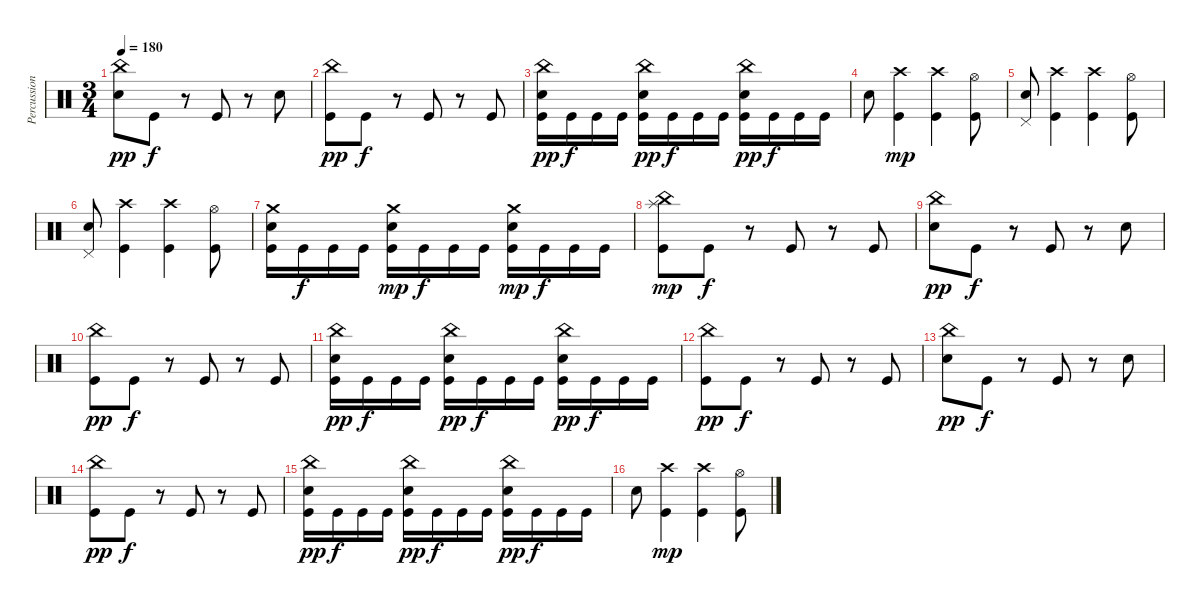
\track ("Percussion" "Percussion") {instrument percussion}
\staff {score}
\articulation defaults
\ts (3 4)
\tempo 180
\clef neutral
\ks c
("China (hit)" "Electric Snare (hit)").8{dy pp} "Kick (hit)".8{dy f} r.8 "Kick (hit)".8 r.8 "Electric Snare (hit)".8 |
("China (hit)" "Kick (hit)").8{dy pp} "Kick (hit)".8{dy f} r.8 "Kick (hit)".8 r.8 "Kick (hit)".8 |
("China (hit)" "Electric Snare (hit)" "Kick (hit)").16{dy pp} "Kick (hit)".16{dy f} "Kick (hit)".16 "Kick (hit)".16 ("China (hit)" "Electric Snare (hit)" "Kick (hit)").16{dy pp} "Kick (hit)".16{dy f} "Kick (hit)".16 "Kick (hit)".16 ("China (hit)" "Electric Snare (hit)" "Kick (hit)").16{dy pp} "Kick (hit)".16{dy f} "Kick (hit)".16 "Kick (hit)".16 |
"Electric Snare (hit)".8 ("Crash high (hit)" "Kick (hit)").4{dy mp} ("Crash high (hit)" "Kick (hit)").4 ("Hi-Hat (open)" "Kick (hit)").8 |
("Pedal Hi-Hat (hit)" "Electric Snare (hit)").8 ("Crash high (hit)" "Kick (hit)").4 ("Crash high (hit)" "Kick (hit)").4 ("Hi-Hat (open)" "Kick (hit)").8 |
("Pedal Hi-Hat (hit)" "Electric Snare (hit)").8 ("Crash high (hit)" "Kick (hit)").4 ("Crash high (hit)" "Kick (hit)").4 ("Hi-Hat (open)" "Kick (hit)").8 |
("Crash medium (hit)" "Electric Snare (hit)" "Kick (hit)").16 "Kick (hit)".16{dy f} "Kick (hit)".16 "Kick (hit)".16 ("Crash medium (hit)" "Electric Snare (hit)" "Kick (hit)").16{dy mp} "Kick (hit)".16{dy f} "Kick (hit)".16 "Kick (hit)".16 ("Crash medium (hit)" "Electric Snare (hit)" "Kick (hit)").16{dy mp} "Kick (hit)".16{dy f} "Kick (hit)".16 "Kick (hit)".16 |
("China (hit)" "Splash (hit)" "Kick (hit)").8{dy mp} "Kick (hit)".8{dy f} r.8 "Kick (hit)".8 r.8 "Kick (hit)".8 |
("China (hit)" "Electric Snare (hit)").8{dy pp} "Kick (hit)".8{dy f} r.8 "Kick (hit)".8 r.8 "Electric Snare (hit)".8 |
("China (hit)" "Kick (hit)").8{dy pp} "Kick (hit)".8{dy f} r.8 "Kick (hit)".8 r.8 "Kick (hit)".8 |
("China (hit)" "Electric Snare (hit)" "Kick (hit)").16{dy pp} "Kick (hit)".16{dy f} "Kick (hit)".16 "Kick (hit)".16 ("China (hit)" "Electric Snare (hit)" "Kick (hit)").16{dy pp} "Kick (hit)".16{dy f} "Kick (hit)".16 "Kick (hit)".16 ("China (hit)" "Electric Snare (hit)" "Kick (hit)").16{dy pp} "Kick (hit)".16{dy f} "Kick (hit)".16 "Kick (hit)".16 |
("China (hit)" "Kick (hit)").8{dy pp} "Kick (hit)".8{dy f} r.8 "Kick (hit)".8 r.8 "Kick (hit)".8 |
("China (hit)" "Electric Snare (hit)").8{dy pp} "Kick (hit)".8{dy f} r.8 "Kick (hit)".8 r.8 "Electric Snare (hit)".8 |
("China (hit)" "Kick (hit)").8{dy pp} "Kick (hit)".8{dy f} r.8 "Kick (hit)".8 r.8 "Kick (hit)".8 |
("China (hit)" "Electric Snare (hit)" "Kick (hit)").16{dy pp} "Kick (hit)".16{dy f} "Kick (hit)".16 "Kick (hit)".16 ("China (hit)" "Electric Snare (hit)" "Kick (hit)").16{dy pp} "Kick (hit)".16{dy f} "Kick (hit)".16 "Kick (hit)".16 ("China (hit)" "Electric Snare (hit)" "Kick (hit)").16{dy pp} "Kick (hit)".16{dy f} "Kick (hit)".16 "Kick (hit)".16 |
"Electric Snare (hit)".8 ("Crash high (hit)" "Kick (hit)").4{dy mp} ("Crash high (hit)" "Kick (hit)").4 ("Hi-Hat (open)" "Kick (hit)").8
